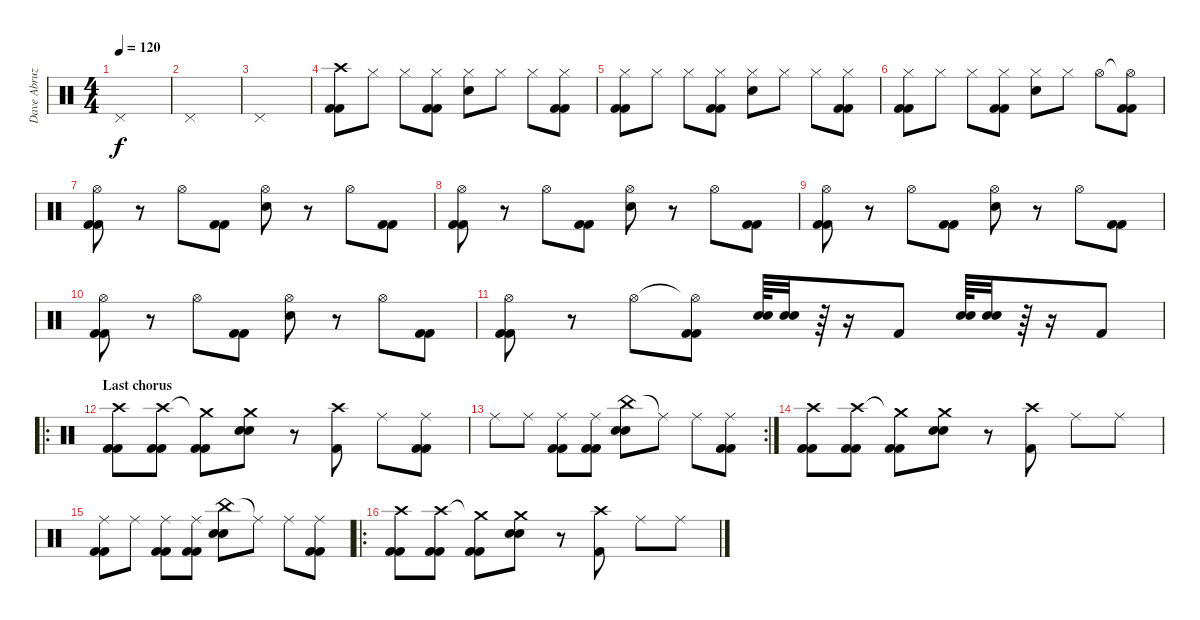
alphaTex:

\track ("Dave Abruzzese" "Dave Abruz") {instrument percussion}
\staff {score}
\articulation defaults
\ts (4 4)
\tempo 120
\clef neutral
\ks c "Pedal Hi-Hat (hit)".1{dy f}
|
"Pedal Hi-Hat (hit)".1 |
"Pedal Hi-Hat (hit)".1 |
("Crash high (hit)" "Kick (hit) 2" "Kick (hit) 2").8 "Hi-Hat (closed)".8 "Hi-Hat (closed)".8 ("Hi-Hat (closed)" "Kick (hit) 2" "Kick (hit) 2").8 ("Hi-Hat (closed)" "Electric Snare (hit)").8 "Hi-Hat (closed)".8 "Hi-Hat (closed)".8 ("Hi-Hat (closed)" "Kick (hit) 2" "Kick (hit) 2").8 |
("Hi-Hat (closed)" "Kick (hit) 2" "Kick (hit) 2").8 "Hi-Hat (closed)".8 "Hi-Hat (closed)".8 ("Hi-Hat (closed)" "Kick (hit) 2" "Kick (hit) 2").8 ("Hi-Hat (closed)" "Electric Snare (hit)").8 "Hi-Hat (closed)".8 "Hi-Hat (closed)".8 ("Hi-Hat (closed)" "Kick (hit) 2" "Kick (hit) 2").8 |
("Hi-Hat (closed)" "Kick (hit) 2" "Kick (hit) 2").8 "Hi-Hat (closed)".8 "Hi-Hat (closed)".8 ("Hi-Hat (closed)" "Kick (hit) 2" "Kick (hit) 2").8 ("Hi-Hat (closed)" "Electric Snare (hit)").8 "Hi-Hat (closed)".8 "Hi-Hat (open)".8 ("Hi-Hat (open)"{t} "Kick (hit) 2" "Kick (hit) 2").8 |
("Hi-Hat (open)" "Kick (hit) 2" "Kick (hit) 2").8 r.8 "Hi-Hat (open)".8 ("Kick (hit) 2" "Kick (hit) 2").8 ("Hi-Hat (open)" "Electric Snare (hit)").8 r.8 "Hi-Hat (open)".8 ("Kick (hit) 2" "Kick (hit) 2").8 |
("Hi-Hat (open)" "Kick (hit) 2" "Kick (hit) 2").8 r.8 "Hi-Hat (open)".8 ("Kick (hit) 2" "Kick (hit) 2").8 ("Hi-Hat (open)" "Electric Snare (hit)").8 r.8 "Hi-Hat (open)".8 ("Kick (hit) 2" "Kick (hit) 2").8 |
("Hi-Hat (open)" "Kick (hit) 2" "Kick (hit) 2").8 r.8 "Hi-Hat (open)".8 ("Kick (hit) 2" "Kick (hit) 2").8 ("Hi-Hat (open)" "Electric Snare (hit)").8 r.8 "Hi-Hat (open)".8 ("Kick (hit) 2" "Kick (hit) 2").8 |
("Hi-Hat (open)" "Kick (hit) 2" "Kick (hit) 2").8 r.8 "Hi-Hat (open)".8 ("Kick (hit) 2" "Kick (hit) 2").8 ("Hi-Hat (open)" "Electric Snare (hit)").8 r.8 "Hi-Hat (open)".8 ("Kick (hit) 2" "Kick (hit) 2").8 |
("Hi-Hat (open)" "Kick (hit) 2" "Kick (hit) 2").8 r.8 "Hi-Hat (open)".8 ("Hi-Hat (open)"{t} "Kick (hit) 2" "Kick (hit) 2").8 ("Electric Snare (hit)" "Electric Snare (hit)").64 ("Electric Snare (hit)" "Electric Snare (hit)").32 r.64 r.16 "Kick (hit) 2".8 ("Electric Snare (hit)" "Electric Snare (hit)").64 ("Electric Snare (hit)" "Electric Snare (hit)").32 r.64 r.16 "Kick (hit) 2".8 |
\ro
\section ("" "Last chorus")
("Crash high (hit)" "Kick (hit) 2" "Kick (hit) 2").8 ("Crash high (hit)" "Kick (hit) 2" "Kick (hit) 2").8 ("Crash medium (hit)"{t} "Kick (hit) 2" "Kick (hit) 2").8 ("Crash medium (hit)" "Electric Snare (hit)" "Electric Snare (hit)").8 r.8 ("Crash high (hit)" "Kick (hit) 2").8 "Ride (middle)".8 ("Ride (middle)" "Kick (hit) 2" "Kick (hit) 2").8 |
\rc 2 "Ride (middle)".8 "Ride (middle)".8
("Ride (middle)" "Kick (hit) 2" "Kick (hit) 2").8 ("Ride (middle)" "Kick (hit) 2" "Kick (hit) 2").8 ("China (hit)" "Electric Snare (hit)" "Electric Snare (hit)").8 "Ride (middle)"{t}.8 "Ride (middle)".8 ("Ride (middle)" "Kick (hit) 2" "Kick (hit) 2").8 |
("Crash high (hit)" "Kick (hit) 2" "Kick (hit) 2").8 ("Crash high (hit)" "Kick (hit) 2" "Kick (hit) 2").8 ("Crash medium (hit)"{t} "Kick (hit) 2" "Kick (hit) 2").8 ("Crash medium (hit)" "Electric Snare (hit)" "Electric Snare (hit)").8 r.8 ("Crash high (hit)" "Kick (hit) 2").8 "Ride (middle)".8 "Ride (middle)".8 |
("Ride (middle)" "Kick (hit) 2" "Kick (hit) 2").8 "Ride (middle)".8 ("Ride (middle)" "Kick (hit) 2" "Kick (hit) 2").8 ("Ride (middle)" "Kick (hit) 2" "Kick (hit) 2").8 ("China (hit)" "Electric Snare (hit)" "Electric Snare (hit)").8 "Ride (middle)"{t}.8 "Ride (middle)".8 ("Ride (middle)" "Kick (hit) 2" "Kick (hit) 2").8 |
\ro
("Crash high (hit)" "Kick (hit) 2" "Kick (hit) 2").8 ("Crash high (hit)" "Kick (hit) 2" "Kick (hit) 2").8 ("Crash medium (hit)"{t} "Kick (hit) 2" "Kick (hit) 2").8 ("Crash medium (hit)" "Electric Snare (hit)" "Electric Snare (hit)").8 r.8 ("Crash high (hit)" "Kick (hit) 2").8 "Ride (middle)".8 "Ride (middle)".8
